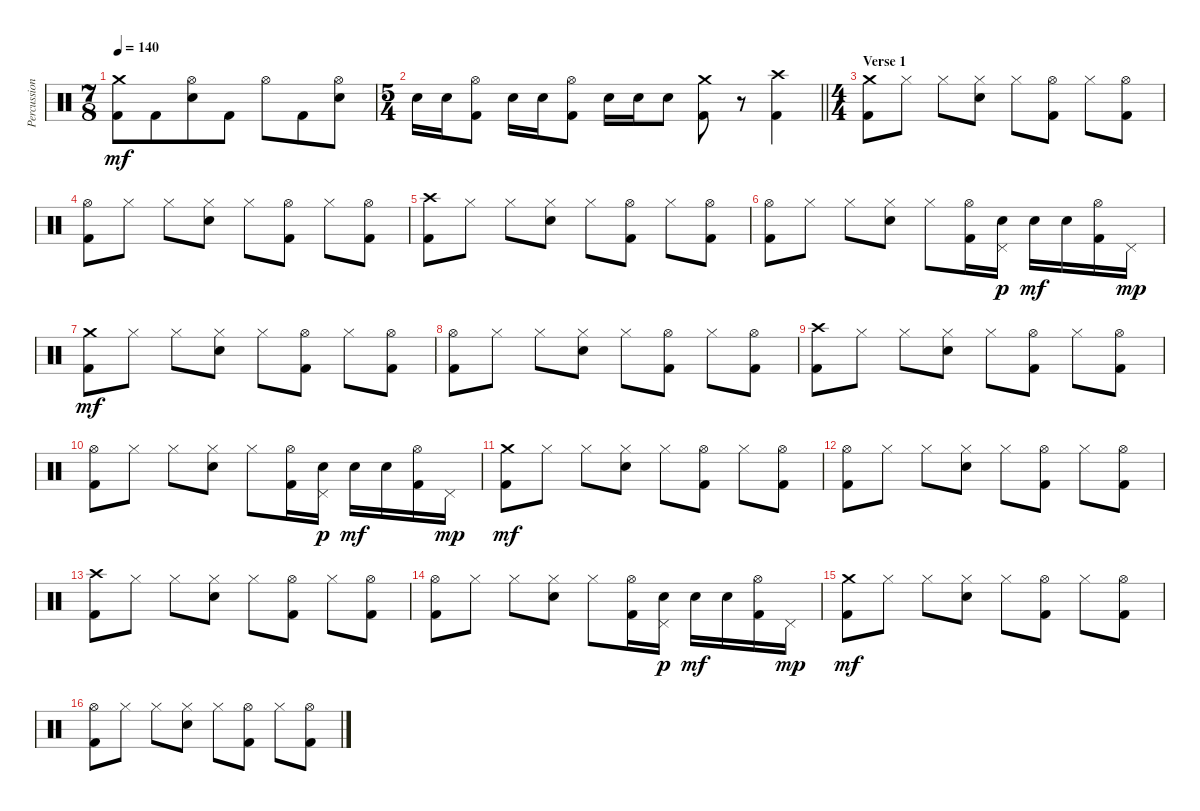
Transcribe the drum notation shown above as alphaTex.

\track ("Percussion" "Percussion") {instrument percussion}
\staff {score}
\articulation defaults
\ts (7 8)
\tempo 140
\clef neutral
\ks c
("Crash medium (hit)" "Kick (hit) 2").8{dy mf} "Kick (hit) 2".8 ("Hi-Hat (open)" "Snare (hit) 2").8 "Kick (hit) 2".8 "Hi-Hat (open)".8 "Kick (hit) 2".8 ("Hi-Hat (open)" "Snare (hit) 2").8 |
\ts (5 4)
\barLineRight lightlight "Snare (hit) 2".16 "Snare (hit) 2".16
("Hi-Hat (open)" "Kick (hit) 2").8 "Snare (hit) 2".16 "Snare (hit) 2".16 ("Hi-Hat (open)" "Kick (hit) 2").8 "Snare (hit) 2".16 "Snare (hit) 2".16 "Snare (hit) 2".8 ("Crash medium (hit)" "Kick (hit) 2").8 r.8 ("Crash high (hit)" "Kick (hit) 2").4 |
\ts (4 4)
\section ("" "Verse 1")
("Crash medium (hit)" "Kick (hit) 2").8 "Hi-Hat (closed)".8 "Hi-Hat (closed)".8 ("Hi-Hat (closed)" "Snare (hit) 2").8 "Hi-Hat (closed)".8 ("Hi-Hat (open)" "Kick (hit) 2").8 "Hi-Hat (closed)".8 ("Hi-Hat (open)" "Kick (hit) 2").8 |
("Hi-Hat (open)" "Kick (hit) 2").8 "Hi-Hat (closed)".8 "Hi-Hat (closed)".8 ("Hi-Hat (closed)" "Snare (hit) 2").8 "Hi-Hat (closed)".8 ("Hi-Hat (open)" "Kick (hit) 2").8 "Hi-Hat (closed)".8 ("Hi-Hat (open)" "Kick (hit) 2").8 |
("Crash high (hit)" "Kick (hit) 2").8 "Hi-Hat (closed)".8 "Hi-Hat (closed)".8 ("Hi-Hat (closed)" "Snare (hit) 2").8 "Hi-Hat (closed)".8 ("Hi-Hat (open)" "Kick (hit) 2").8 "Hi-Hat (closed)".8 ("Hi-Hat (open)" "Kick (hit) 2").8 |
("Hi-Hat (open)" "Kick (hit) 2").8 "Hi-Hat (closed)".8 "Hi-Hat (closed)".8 ("Hi-Hat (closed)" "Snare (hit) 2").8 "Hi-Hat (closed)".8 ("Hi-Hat (open)" "Kick (hit) 2").16 ("Pedal Hi-Hat (hit)" "Snare (hit) 2").16{dy p} "Snare (hit) 2".16{dy mf} "Snare (hit) 2".16 ("Hi-Hat (open)" "Kick (hit) 2").16 "Pedal Hi-Hat (hit)".16{dy mp} |
("Crash medium (hit)" "Kick (hit) 2").8{dy mf} "Hi-Hat (closed)".8 "Hi-Hat (closed)".8 ("Hi-Hat (closed)" "Snare (hit) 2").8 "Hi-Hat (closed)".8 ("Hi-Hat (open)" "Kick (hit) 2").8 "Hi-Hat (closed)".8 ("Hi-Hat (open)" "Kick (hit) 2").8 |
("Hi-Hat (open)" "Kick (hit) 2").8 "Hi-Hat (closed)".8 "Hi-Hat (closed)".8 ("Hi-Hat (closed)" "Snare (hit) 2").8 "Hi-Hat (closed)".8 ("Hi-Hat (open)" "Kick (hit) 2").8 "Hi-Hat (closed)".8 ("Hi-Hat (open)" "Kick (hit) 2").8 |
("Crash high (hit)" "Kick (hit) 2").8 "Hi-Hat (closed)".8 "Hi-Hat (closed)".8 ("Hi-Hat (closed)" "Snare (hit) 2").8 "Hi-Hat (closed)".8 ("Hi-Hat (open)" "Kick (hit) 2").8 "Hi-Hat (closed)".8 ("Hi-Hat (open)" "Kick (hit) 2").8 |
("Hi-Hat (open)" "Kick (hit) 2").8 "Hi-Hat (closed)".8 "Hi-Hat (closed)".8 ("Hi-Hat (closed)" "Snare (hit) 2").8 "Hi-Hat (closed)".8 ("Hi-Hat (open)" "Kick (hit) 2").16 ("Pedal Hi-Hat (hit)" "Snare (hit) 2").16{dy p} "Snare (hit) 2".16{dy mf} "Snare (hit) 2".16 ("Hi-Hat (open)" "Kick (hit) 2").16 "Pedal Hi-Hat (hit)".16{dy mp} |
("Crash medium (hit)" "Kick (hit) 2").8{dy mf} "Hi-Hat (closed)".8 "Hi-Hat (closed)".8 ("Hi-Hat (closed)" "Snare (hit) 2").8 "Hi-Hat (closed)".8 ("Hi-Hat (open)" "Kick (hit) 2").8 "Hi-Hat (closed)".8 ("Hi-Hat (open)" "Kick (hit) 2").8 |
("Hi-Hat (open)" "Kick (hit) 2").8 "Hi-Hat (closed)".8 "Hi-Hat (closed)".8 ("Hi-Hat (closed)" "Snare (hit) 2").8 "Hi-Hat (closed)".8 ("Hi-Hat (open)" "Kick (hit) 2").8 "Hi-Hat (closed)".8 ("Hi-Hat (open)" "Kick (hit) 2").8 |
("Crash high (hit)" "Kick (hit) 2").8 "Hi-Hat (closed)".8 "Hi-Hat (closed)".8 ("Hi-Hat (closed)" "Snare (hit) 2").8 "Hi-Hat (closed)".8 ("Hi-Hat (open)" "Kick (hit) 2").8 "Hi-Hat (closed)".8 ("Hi-Hat (open)" "Kick (hit) 2").8 |
("Hi-Hat (open)" "Kick (hit) 2").8 "Hi-Hat (closed)".8 "Hi-Hat (closed)".8 ("Hi-Hat (closed)" "Snare (hit) 2").8 "Hi-Hat (closed)".8 ("Hi-Hat (open)" "Kick (hit) 2").16 ("Pedal Hi-Hat (hit)" "Snare (hit) 2").16{dy p} "Snare (hit) 2".16{dy mf} "Snare (hit) 2".16 ("Hi-Hat (open)" "Kick (hit) 2").16 "Pedal Hi-Hat (hit)".16{dy mp} |
("Crash medium (hit)" "Kick (hit) 2").8{dy mf} "Hi-Hat (closed)".8 "Hi-Hat (closed)".8 ("Hi-Hat (closed)" "Snare (hit) 2").8 "Hi-Hat (closed)".8 ("Hi-Hat (open)" "Kick (hit) 2").8 "Hi-Hat (closed)".8 ("Hi-Hat (open)" "Kick (hit) 2").8 |
("Hi-Hat (open)" "Kick (hit) 2").8 "Hi-Hat (closed)".8 "Hi-Hat (closed)".8 ("Hi-Hat (closed)" "Snare (hit) 2").8 "Hi-Hat (closed)".8 ("Hi-Hat (open)" "Kick (hit) 2").8 "Hi-Hat (closed)".8 ("Hi-Hat (open)" "Kick (hit) 2").8
